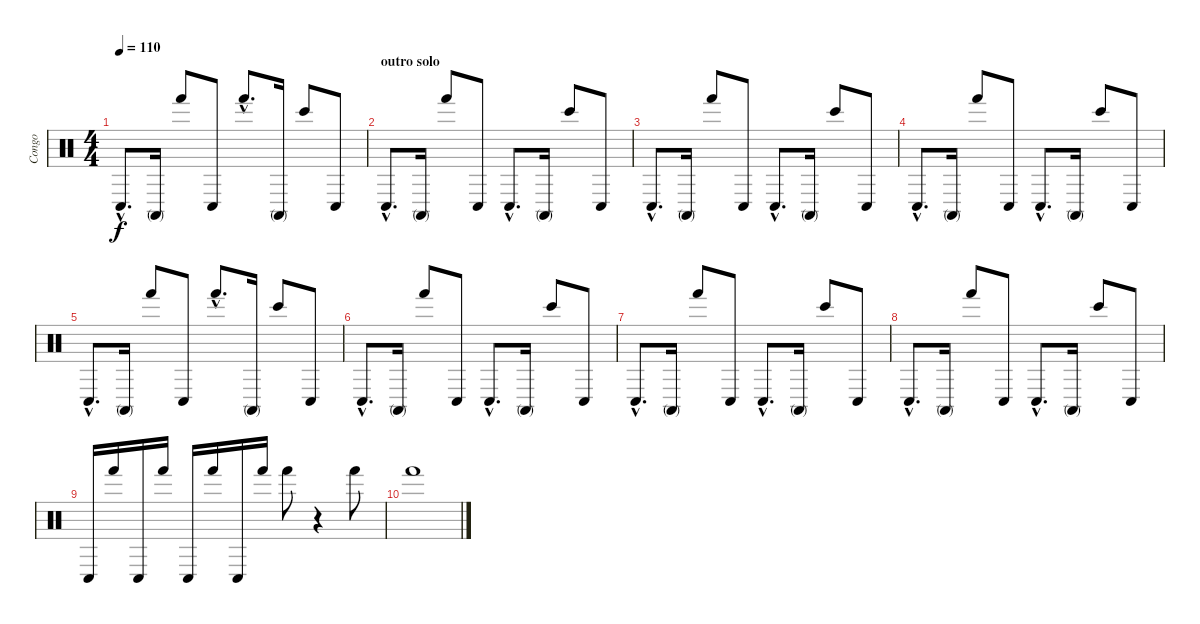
\track ("Congo" "Congo") {instrument percussion}
\staff {score}
\articulation defaults
\ts (4 4)
\tempo 110
\clef neutral
\ks c "Conga low (hit)"{hac}.8{d dy f} "Conga high (mute)".16 "Hand (hit)".8 "Conga low (hit)".8 "Hand (hit)"{hac}.8{d} "Conga high (mute)".16 "Bongo High (hit)".8 "Conga low (hit)".8
|
\section ("" "outro solo")
"Conga low (hit)"{hac}.8{d} "Conga high (mute)".16 "Hand (hit)".8 "Conga low (hit)".8 "Conga low (hit)"{hac}.8{d} "Conga high (mute)".16 "Bongo High (hit)".8 "Conga low (hit)".8 |
"Conga low (hit)"{hac}.8{d} "Conga high (mute)".16 "Hand (hit)".8 "Conga low (hit)".8 "Conga low (hit)"{hac}.8{d} "Conga high (mute)".16 "Bongo High (hit)".8 "Conga low (hit)".8 |
"Conga low (hit)"{hac}.8{d} "Conga high (mute)".16 "Hand (hit)".8 "Conga low (hit)".8 "Conga low (hit)"{hac}.8{d} "Conga high (mute)".16 "Bongo High (hit)".8 "Conga low (hit)".8 |
"Conga low (hit)"{hac}.8{d} "Conga high (mute)".16 "Hand (hit)".8 "Conga low (hit)".8 "Hand (hit)"{hac}.8{d} "Conga high (mute)".16 "Bongo High (hit)".8 "Conga low (hit)".8 |
"Conga low (hit)"{hac}.8{d} "Conga high (mute)".16 "Hand (hit)".8 "Conga low (hit)".8 "Conga low (hit)"{hac}.8{d} "Conga high (mute)".16 "Bongo High (hit)".8 "Conga low (hit)".8 |
"Conga low (hit)"{hac}.8{d} "Conga high (mute)".16 "Hand (hit)".8 "Conga low (hit)".8 "Conga low (hit)"{hac}.8{d} "Conga high (mute)".16 "Bongo High (hit)".8 "Conga low (hit)".8 |
"Conga low (hit)"{hac}.8{d} "Conga high (mute)".16 "Hand (hit)".8 "Conga low (hit)".8 "Conga low (hit)"{hac}.8{d} "Conga high (mute)".16 "Bongo High (hit)".8 "Conga low (hit)".8 |
"Conga low (hit)".16 "Hand (hit)".16 "Conga low (hit)".16 "Hand (hit)".16 "Conga low (hit)".16 "Hand (hit)".16 "Conga low (hit)".16 "Hand (hit)".16 "Hand (hit)".8 r.4 "Hand (hit)".8 |
"Hand (hit)".1
